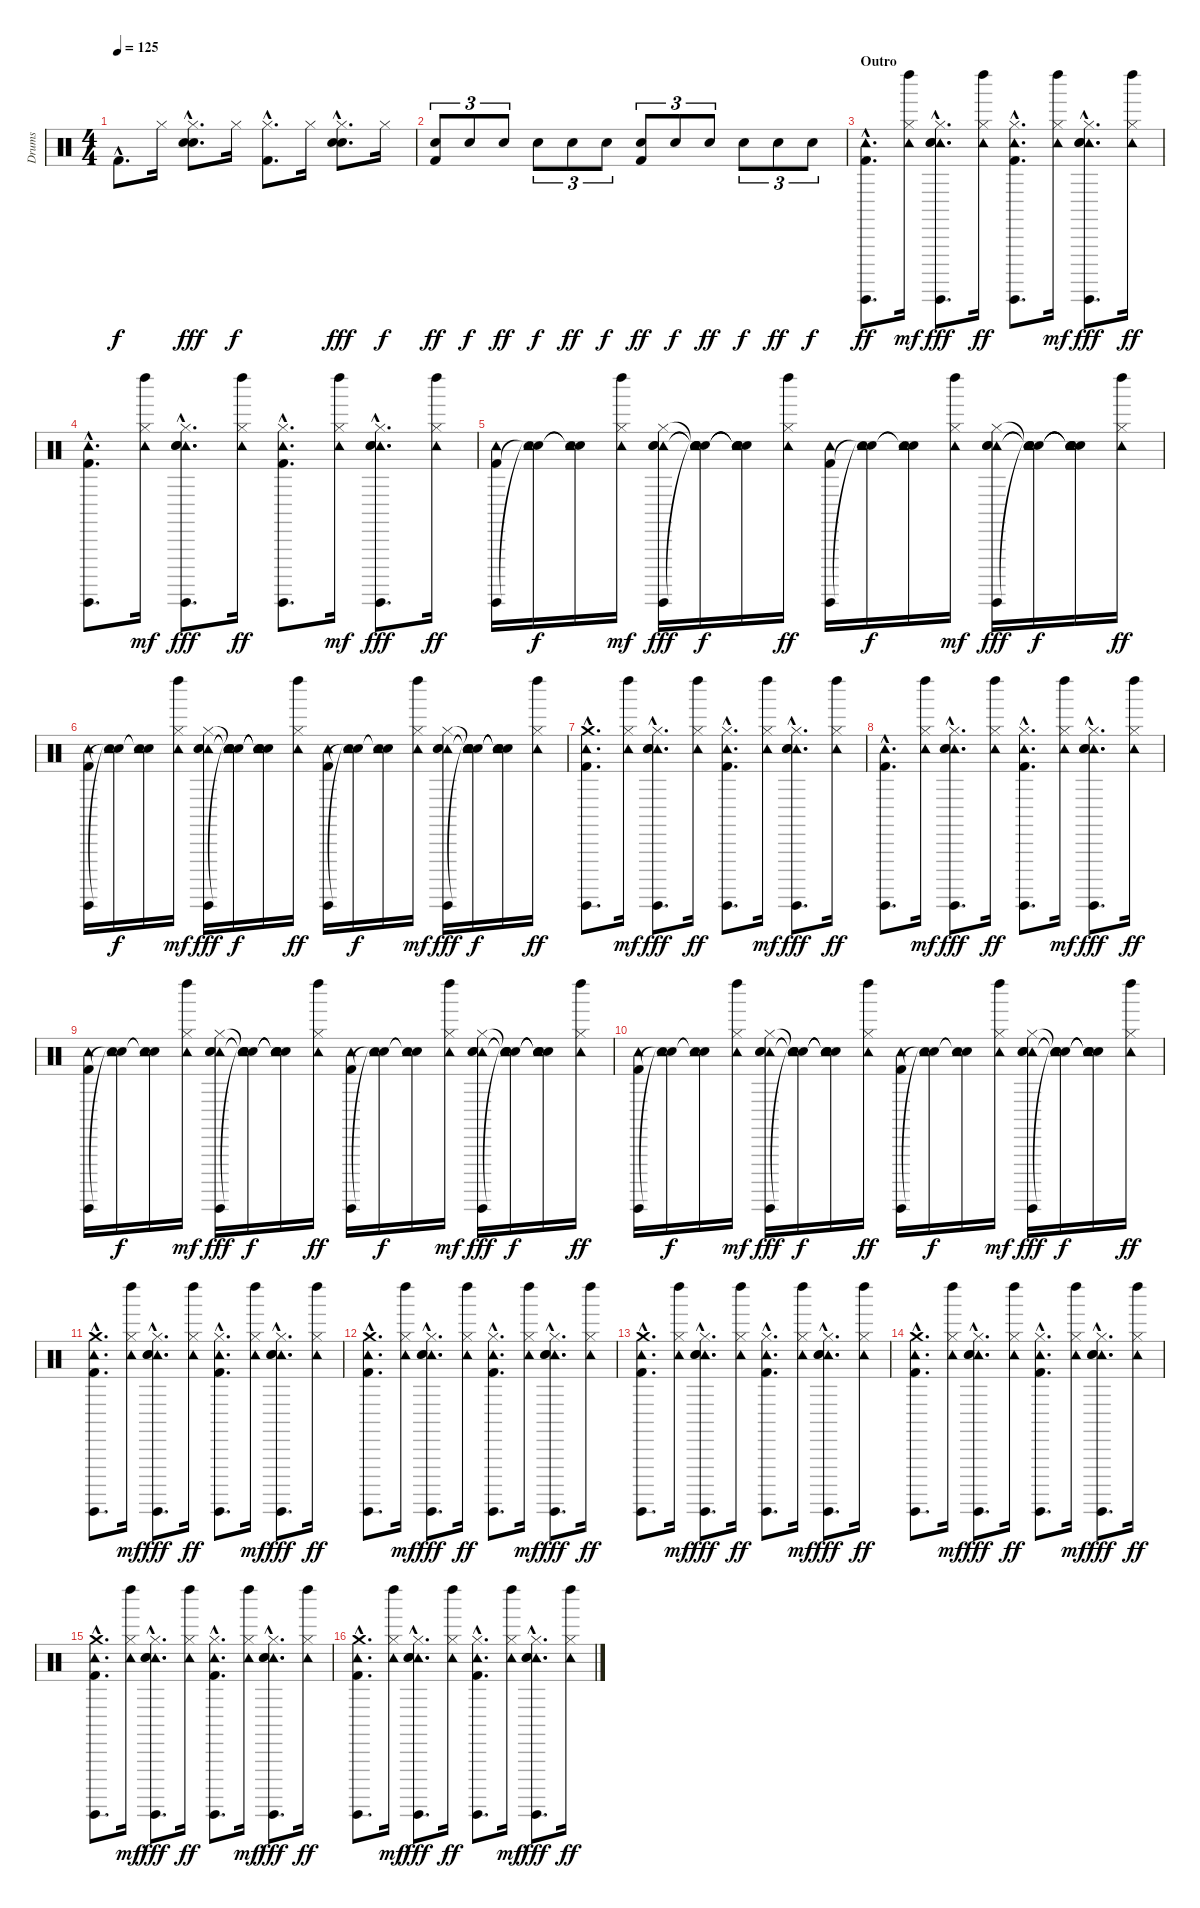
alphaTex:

\track ("Drums" "Drums") {instrument percussion}
\staff {score}
\articulation defaults
\ts (4 4)
\tempo 125
\clef neutral
\ks c "Kick (hit) 2"{hac}.8{d dy f} "Hi-Hat (closed)".16
("Hand Clap (hit)"{hac} "Hi-Hat (closed)"{hac} "Snare (hit) 2"{hac}).8{d dy fff} "Hi-Hat (closed)".16{dy f} ("Hi-Hat (closed)"{hac} "Kick (hit) 2"{hac}).8{d} "Hi-Hat (closed)".16 ("Hand Clap (hit)"{hac} "Hi-Hat (closed)"{hac} "Snare (hit) 2"{hac}).8{d dy fff} "Hi-Hat (closed)".16{dy f} |
("Snare (hit) 2" "Kick (hit) 2").8{tu (3 2) dy ff} "Snare (hit) 2".8{tu (3 2) dy f} "Snare (hit) 2".8{tu (3 2) dy ff} "Snare (hit) 2".8{tu (3 2) dy f} "Snare (hit) 2".8{tu (3 2) dy ff} "Snare (hit) 2".8{tu (3 2) dy f} ("Snare (hit) 2" "Kick (hit) 2").8{tu (3 2) dy ff} "Snare (hit) 2".8{tu (3 2) dy f} "Snare (hit) 2".8{tu (3 2) dy ff} "Snare (hit) 2".8{tu (3 2) dy f} "Snare (hit) 2".8{tu (3 2) dy ff} "Snare (hit) 2".8{tu (3 2) dy f} |
\section ("" "Outro")
("Guiro (hit)"{hac} "Tambourine (hit)"{hac} "Kick (hit) 2"{hac}).8{d dy ff} ("Left Maraca (hit)" "Tambourine (hit)" "Hi-Hat (closed)").16{dy mf} ("Guiro (hit)"{hac} "Tambourine (hit)"{hac} "Hi-Hat (closed)"{hac} "Hand Clap (hit)"{hac} "Snare (hit) 2"{hac}).8{d dy fff} ("Left Maraca (hit)" "Tambourine (hit)" "Hi-Hat (closed)").16{dy ff} ("Guiro (hit)"{hac} "Tambourine (hit)"{hac} "Hi-Hat (closed)"{hac} "Kick (hit) 2"{hac}).8{d} ("Left Maraca (hit)" "Tambourine (hit)" "Hi-Hat (closed)").16{dy mf} ("Guiro (hit)"{hac} "Tambourine (hit)"{hac} "Hi-Hat (closed)"{hac} "Hand Clap (hit)"{hac} "Snare (hit) 2"{hac}).8{d dy fff} ("Left Maraca (hit)" "Tambourine (hit)" "Hi-Hat (closed)").16{dy ff} |
("Guiro (hit)"{hac} "Tambourine (hit)"{hac} "Kick (hit) 2"{hac}).8{d} ("Left Maraca (hit)" "Tambourine (hit)" "Hi-Hat (closed)").16{dy mf} ("Guiro (hit)"{hac} "Tambourine (hit)"{hac} "Hi-Hat (closed)"{hac} "Hand Clap (hit)"{hac} "Snare (hit) 2"{hac}).8{d dy fff} ("Left Maraca (hit)" "Tambourine (hit)" "Hi-Hat (closed)").16{dy ff} ("Guiro (hit)"{hac} "Tambourine (hit)"{hac} "Hi-Hat (closed)"{hac} "Kick (hit) 2"{hac}).8{d} ("Left Maraca (hit)" "Tambourine (hit)" "Hi-Hat (closed)").16{dy mf} ("Guiro (hit)"{hac} "Tambourine (hit)"{hac} "Hi-Hat (closed)"{hac} "Hand Clap (hit)"{hac} "Snare (hit) 2"{hac}).8{d dy fff} ("Left Maraca (hit)" "Tambourine (hit)" "Hi-Hat (closed)").16{dy ff} |
("Guiro (hit)" "Tambourine (hit)" "Kick (hit) 2").16 ("Snare (hit)"{t} "Tambourine (hit)" "Snare (hit)"{t}).16{dy f} ("Snare (hit)"{t} "Tambourine (hit)" "Snare (hit)"{t}).16 ("Left Maraca (hit)" "Tambourine (hit)" "Hi-Hat (closed)").16{dy mf} ("Guiro (hit)" "Tambourine (hit)" "Hi-Hat (closed)" "Hand Clap (hit)" "Snare (hit) 2").16{dy fff} ("Snare (hit)"{t} "Tambourine (hit)" "Snare (hit)"{t} "Snare (hit)"{t} "Snare (hit)"{t}).16{dy f} ("Snare (hit)"{t} "Tambourine (hit)" "Snare (hit)"{t} "Snare (hit)"{t} "Snare (hit)"{t}).16 ("Left Maraca (hit)" "Tambourine (hit)" "Hi-Hat (closed)").16{dy ff} ("Guiro (hit)" "Tambourine (hit)" "Kick (hit) 2").16 ("Snare (hit)"{t} "Tambourine (hit)" "Snare (hit)"{t}).16{dy f} ("Snare (hit)"{t} "Tambourine (hit)" "Snare (hit)"{t}).16 ("Left Maraca (hit)" "Tambourine (hit)" "Hi-Hat (closed)").16{dy mf} ("Guiro (hit)" "Tambourine (hit)" "Hi-Hat (closed)" "Hand Clap (hit)" "Snare (hit) 2").16{dy fff} ("Snare (hit)"{t} "Tambourine (hit)" "Snare (hit)"{t} "Snare (hit)"{t} "Snare (hit)"{t}).16{dy f} ("Snare (hit)"{t} "Tambourine (hit)" "Snare (hit)"{t} "Snare (hit)"{t} "Snare (hit)"{t}).16 ("Left Maraca (hit)" "Tambourine (hit)" "Hi-Hat (closed)").16{dy ff} |
("Guiro (hit)" "Tambourine (hit)" "Kick (hit) 2").16 ("Snare (hit)"{t} "Tambourine (hit)" "Snare (hit)"{t}).16{dy f} ("Snare (hit)"{t} "Tambourine (hit)" "Snare (hit)"{t}).16 ("Left Maraca (hit)" "Tambourine (hit)" "Hi-Hat (closed)").16{dy mf} ("Guiro (hit)" "Tambourine (hit)" "Hi-Hat (closed)" "Hand Clap (hit)" "Snare (hit) 2").16{dy fff} ("Snare (hit)"{t} "Tambourine (hit)" "Snare (hit)"{t} "Snare (hit)"{t} "Snare (hit)"{t}).16{dy f} ("Snare (hit)"{t} "Tambourine (hit)" "Snare (hit)"{t} "Snare (hit)"{t} "Snare (hit)"{t}).16 ("Left Maraca (hit)" "Tambourine (hit)" "Hi-Hat (closed)").16{dy ff} ("Guiro (hit)" "Tambourine (hit)" "Kick (hit) 2").16 ("Snare (hit)"{t} "Tambourine (hit)" "Snare (hit)"{t}).16{dy f} ("Snare (hit)"{t} "Tambourine (hit)" "Snare (hit)"{t}).16 ("Left Maraca (hit)" "Tambourine (hit)" "Hi-Hat (closed)").16{dy mf} ("Guiro (hit)" "Tambourine (hit)" "Hi-Hat (closed)" "Hand Clap (hit)" "Snare (hit) 2").16{dy fff} ("Snare (hit)"{t} "Tambourine (hit)" "Snare (hit)"{t} "Snare (hit)"{t} "Snare (hit)"{t}).16{dy f} ("Snare (hit)"{t} "Tambourine (hit)" "Snare (hit)"{t} "Snare (hit)"{t} "Snare (hit)"{t}).16 ("Left Maraca (hit)" "Tambourine (hit)" "Hi-Hat (closed)").16{dy ff} |
("Guiro (hit)"{hac} "Tambourine (hit)"{hac} "Crash medium (hit)"{hac} "Kick (hit) 2"{hac}).8{d} ("Left Maraca (hit)" "Tambourine (hit)" "Hi-Hat (closed)").16{dy mf} ("Guiro (hit)"{hac} "Tambourine (hit)"{hac} "Hi-Hat (closed)"{hac} "Hand Clap (hit)"{hac} "Snare (hit) 2"{hac}).8{d dy fff} ("Left Maraca (hit)" "Tambourine (hit)" "Hi-Hat (closed)").16{dy ff} ("Guiro (hit)"{hac} "Tambourine (hit)"{hac} "Hi-Hat (closed)"{hac} "Kick (hit) 2"{hac}).8{d} ("Left Maraca (hit)" "Tambourine (hit)" "Hi-Hat (closed)").16{dy mf} ("Guiro (hit)"{hac} "Tambourine (hit)"{hac} "Hi-Hat (closed)"{hac} "Hand Clap (hit)"{hac} "Snare (hit) 2"{hac}).8{d dy fff} ("Left Maraca (hit)" "Tambourine (hit)" "Hi-Hat (closed)").16{dy ff} |
("Guiro (hit)"{hac} "Tambourine (hit)"{hac} "Kick (hit) 2"{hac}).8{d} ("Left Maraca (hit)" "Tambourine (hit)" "Hi-Hat (closed)").16{dy mf} ("Guiro (hit)"{hac} "Tambourine (hit)"{hac} "Hi-Hat (closed)"{hac} "Hand Clap (hit)"{hac} "Snare (hit) 2"{hac}).8{d dy fff} ("Left Maraca (hit)" "Tambourine (hit)" "Hi-Hat (closed)").16{dy ff} ("Guiro (hit)"{hac} "Tambourine (hit)"{hac} "Hi-Hat (closed)"{hac} "Kick (hit) 2"{hac}).8{d} ("Left Maraca (hit)" "Tambourine (hit)" "Hi-Hat (closed)").16{dy mf} ("Guiro (hit)"{hac} "Tambourine (hit)"{hac} "Hi-Hat (closed)"{hac} "Hand Clap (hit)"{hac} "Snare (hit) 2"{hac}).8{d dy fff} ("Left Maraca (hit)" "Tambourine (hit)" "Hi-Hat (closed)").16{dy ff} |
("Guiro (hit)" "Tambourine (hit)" "Kick (hit) 2").16 ("Snare (hit)"{t} "Tambourine (hit)" "Snare (hit)"{t}).16{dy f} ("Snare (hit)"{t} "Tambourine (hit)" "Snare (hit)"{t}).16 ("Left Maraca (hit)" "Tambourine (hit)" "Hi-Hat (closed)").16{dy mf} ("Guiro (hit)" "Tambourine (hit)" "Hi-Hat (closed)" "Hand Clap (hit)" "Snare (hit) 2").16{dy fff} ("Snare (hit)"{t} "Tambourine (hit)" "Snare (hit)"{t} "Snare (hit)"{t} "Snare (hit)"{t}).16{dy f} ("Snare (hit)"{t} "Tambourine (hit)" "Snare (hit)"{t} "Snare (hit)"{t} "Snare (hit)"{t}).16 ("Left Maraca (hit)" "Tambourine (hit)" "Hi-Hat (closed)").16{dy ff} ("Guiro (hit)" "Tambourine (hit)" "Kick (hit) 2").16 ("Snare (hit)"{t} "Tambourine (hit)" "Snare (hit)"{t}).16{dy f} ("Snare (hit)"{t} "Tambourine (hit)" "Snare (hit)"{t}).16 ("Left Maraca (hit)" "Tambourine (hit)" "Hi-Hat (closed)").16{dy mf} ("Guiro (hit)" "Tambourine (hit)" "Hi-Hat (closed)" "Hand Clap (hit)" "Snare (hit) 2").16{dy fff} ("Snare (hit)"{t} "Tambourine (hit)" "Snare (hit)"{t} "Snare (hit)"{t} "Snare (hit)"{t}).16{dy f} ("Snare (hit)"{t} "Tambourine (hit)" "Snare (hit)"{t} "Snare (hit)"{t} "Snare (hit)"{t}).16 ("Left Maraca (hit)" "Tambourine (hit)" "Hi-Hat (closed)").16{dy ff} |
("Guiro (hit)" "Tambourine (hit)" "Kick (hit) 2").16 ("Snare (hit)"{t} "Tambourine (hit)" "Snare (hit)"{t}).16{dy f} ("Snare (hit)"{t} "Tambourine (hit)" "Snare (hit)"{t}).16 ("Left Maraca (hit)" "Tambourine (hit)" "Hi-Hat (closed)").16{dy mf} ("Guiro (hit)" "Tambourine (hit)" "Hi-Hat (closed)" "Hand Clap (hit)" "Snare (hit) 2").16{dy fff} ("Snare (hit)"{t} "Tambourine (hit)" "Snare (hit)"{t} "Snare (hit)"{t} "Snare (hit)"{t}).16{dy f} ("Snare (hit)"{t} "Tambourine (hit)" "Snare (hit)"{t} "Snare (hit)"{t} "Snare (hit)"{t}).16 ("Left Maraca (hit)" "Tambourine (hit)" "Hi-Hat (closed)").16{dy ff} ("Guiro (hit)" "Tambourine (hit)" "Kick (hit) 2").16 ("Snare (hit)"{t} "Tambourine (hit)" "Snare (hit)"{t}).16{dy f} ("Snare (hit)"{t} "Tambourine (hit)" "Snare (hit)"{t}).16 ("Left Maraca (hit)" "Tambourine (hit)" "Hi-Hat (closed)").16{dy mf} ("Guiro (hit)" "Tambourine (hit)" "Hi-Hat (closed)" "Hand Clap (hit)" "Snare (hit) 2").16{dy fff} ("Snare (hit)"{t} "Tambourine (hit)" "Snare (hit)"{t} "Snare (hit)"{t} "Snare (hit)"{t}).16{dy f} ("Snare (hit)"{t} "Tambourine (hit)" "Snare (hit)"{t} "Snare (hit)"{t} "Snare (hit)"{t}).16 ("Left Maraca (hit)" "Tambourine (hit)" "Hi-Hat (closed)").16{dy ff} |
("Guiro (hit)"{hac} "Tambourine (hit)"{hac} "Crash medium (hit)"{hac} "Kick (hit) 2"{hac}).8{d} ("Left Maraca (hit)" "Tambourine (hit)" "Hi-Hat (closed)").16{dy mf} ("Guiro (hit)"{hac} "Tambourine (hit)"{hac} "Hi-Hat (closed)"{hac} "Hand Clap (hit)"{hac} "Snare (hit) 2"{hac}).8{d dy fff} ("Left Maraca (hit)" "Tambourine (hit)" "Hi-Hat (closed)").16{dy ff} ("Guiro (hit)"{hac} "Tambourine (hit)"{hac} "Hi-Hat (closed)"{hac} "Kick (hit) 2"{hac}).8{d} ("Left Maraca (hit)" "Tambourine (hit)" "Hi-Hat (closed)").16{dy mf} ("Guiro (hit)"{hac} "Tambourine (hit)"{hac} "Hi-Hat (closed)"{hac} "Hand Clap (hit)"{hac} "Snare (hit) 2"{hac}).8{d dy fff} ("Left Maraca (hit)" "Tambourine (hit)" "Hi-Hat (closed)").16{dy ff} |
("Guiro (hit)"{hac} "Tambourine (hit)"{hac} "Crash medium (hit)"{hac} "Kick (hit) 2"{hac}).8{d} ("Left Maraca (hit)" "Tambourine (hit)" "Hi-Hat (closed)").16{dy mf} ("Guiro (hit)"{hac} "Tambourine (hit)"{hac} "Hi-Hat (closed)"{hac} "Hand Clap (hit)"{hac} "Snare (hit) 2"{hac}).8{d dy fff} ("Left Maraca (hit)" "Tambourine (hit)" "Hi-Hat (closed)").16{dy ff} ("Guiro (hit)"{hac} "Tambourine (hit)"{hac} "Hi-Hat (closed)"{hac} "Kick (hit) 2"{hac}).8{d} ("Left Maraca (hit)" "Tambourine (hit)" "Hi-Hat (closed)").16{dy mf} ("Guiro (hit)"{hac} "Tambourine (hit)"{hac} "Hi-Hat (closed)"{hac} "Hand Clap (hit)"{hac} "Snare (hit) 2"{hac}).8{d dy fff} ("Left Maraca (hit)" "Tambourine (hit)" "Hi-Hat (closed)").16{dy ff} |
("Guiro (hit)"{hac} "Tambourine (hit)"{hac} "Crash medium (hit)"{hac} "Kick (hit) 2"{hac}).8{d} ("Left Maraca (hit)" "Tambourine (hit)" "Hi-Hat (closed)").16{dy mf} ("Guiro (hit)"{hac} "Tambourine (hit)"{hac} "Hi-Hat (closed)"{hac} "Hand Clap (hit)"{hac} "Snare (hit) 2"{hac}).8{d dy fff} ("Left Maraca (hit)" "Tambourine (hit)" "Hi-Hat (closed)").16{dy ff} ("Guiro (hit)"{hac} "Tambourine (hit)"{hac} "Hi-Hat (closed)"{hac} "Kick (hit) 2"{hac}).8{d} ("Left Maraca (hit)" "Tambourine (hit)" "Hi-Hat (closed)").16{dy mf} ("Guiro (hit)"{hac} "Tambourine (hit)"{hac} "Hi-Hat (closed)"{hac} "Hand Clap (hit)"{hac} "Snare (hit) 2"{hac}).8{d dy fff} ("Left Maraca (hit)" "Tambourine (hit)" "Hi-Hat (closed)").16{dy ff} |
("Guiro (hit)"{hac} "Tambourine (hit)"{hac} "Crash medium (hit)"{hac} "Kick (hit) 2"{hac}).8{d} ("Left Maraca (hit)" "Tambourine (hit)" "Hi-Hat (closed)").16{dy mf} ("Guiro (hit)"{hac} "Tambourine (hit)"{hac} "Hi-Hat (closed)"{hac} "Hand Clap (hit)"{hac} "Snare (hit) 2"{hac}).8{d dy fff} ("Left Maraca (hit)" "Tambourine (hit)" "Hi-Hat (closed)").16{dy ff} ("Guiro (hit)"{hac} "Tambourine (hit)"{hac} "Hi-Hat (closed)"{hac} "Kick (hit) 2"{hac}).8{d} ("Left Maraca (hit)" "Tambourine (hit)" "Hi-Hat (closed)").16{dy mf} ("Guiro (hit)"{hac} "Tambourine (hit)"{hac} "Hi-Hat (closed)"{hac} "Hand Clap (hit)"{hac} "Snare (hit) 2"{hac}).8{d dy fff} ("Left Maraca (hit)" "Tambourine (hit)" "Hi-Hat (closed)").16{dy ff} |
("Guiro (hit)"{hac} "Tambourine (hit)"{hac} "Crash medium (hit)"{hac} "Kick (hit) 2"{hac}).8{d} ("Left Maraca (hit)" "Tambourine (hit)" "Hi-Hat (closed)").16{dy mf} ("Guiro (hit)"{hac} "Tambourine (hit)"{hac} "Hi-Hat (closed)"{hac} "Hand Clap (hit)"{hac} "Snare (hit) 2"{hac}).8{d dy fff} ("Left Maraca (hit)" "Tambourine (hit)" "Hi-Hat (closed)").16{dy ff} ("Guiro (hit)"{hac} "Tambourine (hit)"{hac} "Hi-Hat (closed)"{hac} "Kick (hit) 2"{hac}).8{d} ("Left Maraca (hit)" "Tambourine (hit)" "Hi-Hat (closed)").16{dy mf} ("Guiro (hit)"{hac} "Tambourine (hit)"{hac} "Hi-Hat (closed)"{hac} "Hand Clap (hit)"{hac} "Snare (hit) 2"{hac}).8{d dy fff} ("Left Maraca (hit)" "Tambourine (hit)" "Hi-Hat (closed)").16{dy ff} |
("Guiro (hit)"{hac} "Tambourine (hit)"{hac} "Crash medium (hit)"{hac} "Kick (hit) 2"{hac}).8{d} ("Left Maraca (hit)" "Tambourine (hit)" "Hi-Hat (closed)").16{dy mf} ("Guiro (hit)"{hac} "Tambourine (hit)"{hac} "Hi-Hat (closed)"{hac} "Hand Clap (hit)"{hac} "Snare (hit) 2"{hac}).8{d dy fff} ("Left Maraca (hit)" "Tambourine (hit)" "Hi-Hat (closed)").16{dy ff} ("Guiro (hit)"{hac} "Tambourine (hit)"{hac} "Hi-Hat (closed)"{hac} "Kick (hit) 2"{hac}).8{d} ("Left Maraca (hit)" "Tambourine (hit)" "Hi-Hat (closed)").16{dy mf} ("Guiro (hit)"{hac} "Tambourine (hit)"{hac} "Hi-Hat (closed)"{hac} "Hand Clap (hit)"{hac} "Snare (hit) 2"{hac}).8{d dy fff} ("Left Maraca (hit)" "Tambourine (hit)" "Hi-Hat (closed)").16{dy ff}
